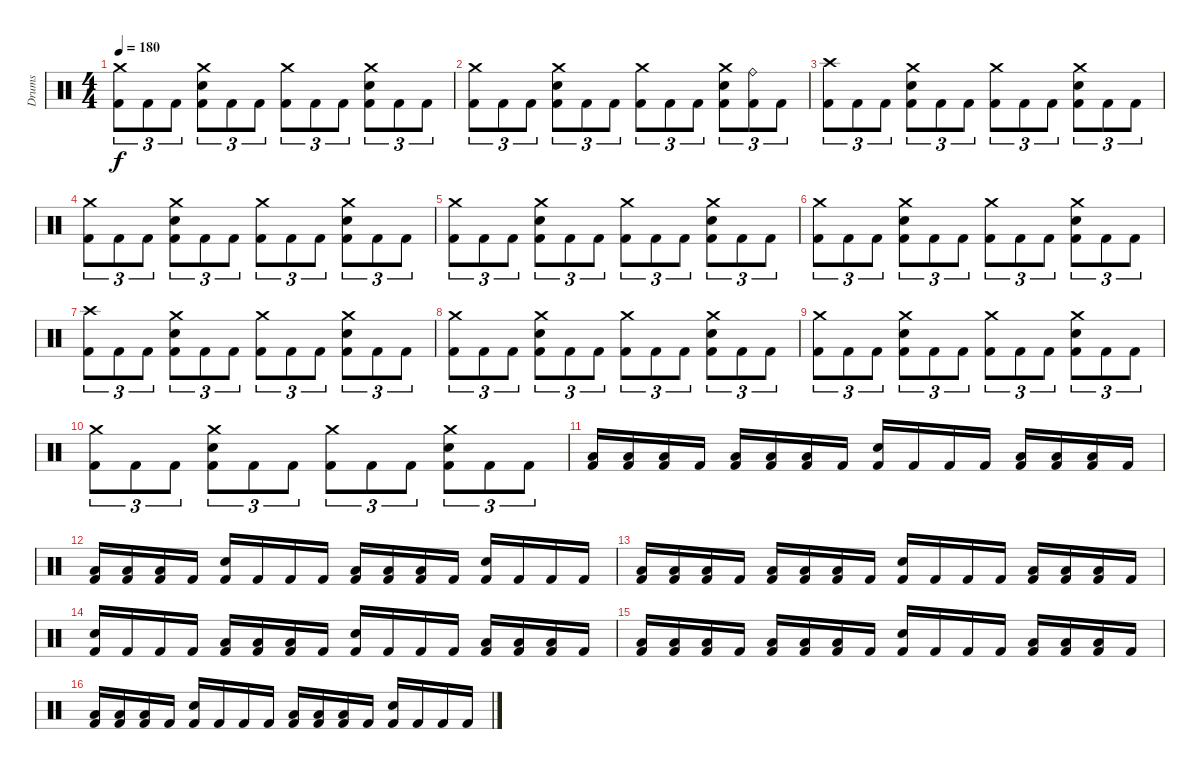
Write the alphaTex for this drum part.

\track ("Drums" "Drums") {instrument percussion}
\staff {score}
\articulation defaults
\ts (4 4)
\tempo 180
\clef neutral
\ks c
("Crash medium (hit)" "Kick (hit) 2").8{tu (3 2) dy f} "Kick (hit) 2".8{tu (3 2)} "Kick (hit) 2".8{tu (3 2)} ("Crash medium (hit)" "Electric Snare (hit)" "Kick (hit) 2").8{tu (3 2)} "Kick (hit) 2".8{tu (3 2)} "Kick (hit) 2".8{tu (3 2)} ("Crash medium (hit)" "Kick (hit) 2").8{tu (3 2)} "Kick (hit) 2".8{tu (3 2)} "Kick (hit) 2".8{tu (3 2)} ("Crash medium (hit)" "Electric Snare (hit)" "Kick (hit) 2").8{tu (3 2)} "Kick (hit) 2".8{tu (3 2)} "Kick (hit) 2".8{tu (3 2)} |
("Crash medium (hit)" "Kick (hit) 2").8{tu (3 2)} "Kick (hit) 2".8{tu (3 2)} "Kick (hit) 2".8{tu (3 2)} ("Crash medium (hit)" "Electric Snare (hit)" "Kick (hit) 2").8{tu (3 2)} "Kick (hit) 2".8{tu (3 2)} "Kick (hit) 2".8{tu (3 2)} ("Crash medium (hit)" "Kick (hit) 2").8{tu (3 2)} "Kick (hit) 2".8{tu (3 2)} "Kick (hit) 2".8{tu (3 2)} ("Crash medium (hit)" "Electric Snare (hit)" "Kick (hit) 2").8{tu (3 2)} ("Ride (bell)" "Kick (hit) 2").8{tu (3 2)} "Kick (hit) 2".8{tu (3 2)} |
("Crash high (hit)" "Kick (hit) 2").8{tu (3 2)} "Kick (hit) 2".8{tu (3 2)} "Kick (hit) 2".8{tu (3 2)} ("Crash medium (hit)" "Electric Snare (hit)" "Kick (hit) 2").8{tu (3 2)} "Kick (hit) 2".8{tu (3 2)} "Kick (hit) 2".8{tu (3 2)} ("Crash medium (hit)" "Kick (hit) 2").8{tu (3 2)} "Kick (hit) 2".8{tu (3 2)} "Kick (hit) 2".8{tu (3 2)} ("Crash medium (hit)" "Electric Snare (hit)" "Kick (hit) 2").8{tu (3 2)} "Kick (hit) 2".8{tu (3 2)} "Kick (hit) 2".8{tu (3 2)} |
("Crash medium (hit)" "Kick (hit) 2").8{tu (3 2)} "Kick (hit) 2".8{tu (3 2)} "Kick (hit) 2".8{tu (3 2)} ("Crash medium (hit)" "Electric Snare (hit)" "Kick (hit) 2").8{tu (3 2)} "Kick (hit) 2".8{tu (3 2)} "Kick (hit) 2".8{tu (3 2)} ("Crash medium (hit)" "Kick (hit) 2").8{tu (3 2)} "Kick (hit) 2".8{tu (3 2)} "Kick (hit) 2".8{tu (3 2)} ("Crash medium (hit)" "Electric Snare (hit)" "Kick (hit) 2").8{tu (3 2)} "Kick (hit) 2".8{tu (3 2)} "Kick (hit) 2".8{tu (3 2)} |
("Crash medium (hit)" "Kick (hit) 2").8{tu (3 2)} "Kick (hit) 2".8{tu (3 2)} "Kick (hit) 2".8{tu (3 2)} ("Crash medium (hit)" "Electric Snare (hit)" "Kick (hit) 2").8{tu (3 2)} "Kick (hit) 2".8{tu (3 2)} "Kick (hit) 2".8{tu (3 2)} ("Crash medium (hit)" "Kick (hit) 2").8{tu (3 2)} "Kick (hit) 2".8{tu (3 2)} "Kick (hit) 2".8{tu (3 2)} ("Crash medium (hit)" "Electric Snare (hit)" "Kick (hit) 2").8{tu (3 2)} "Kick (hit) 2".8{tu (3 2)} "Kick (hit) 2".8{tu (3 2)} |
("Crash medium (hit)" "Kick (hit) 2").8{tu (3 2)} "Kick (hit) 2".8{tu (3 2)} "Kick (hit) 2".8{tu (3 2)} ("Crash medium (hit)" "Electric Snare (hit)" "Kick (hit) 2").8{tu (3 2)} "Kick (hit) 2".8{tu (3 2)} "Kick (hit) 2".8{tu (3 2)} ("Crash medium (hit)" "Kick (hit) 2").8{tu (3 2)} "Kick (hit) 2".8{tu (3 2)} "Kick (hit) 2".8{tu (3 2)} ("Crash medium (hit)" "Electric Snare (hit)" "Kick (hit) 2").8{tu (3 2)} "Kick (hit) 2".8{tu (3 2)} "Kick (hit) 2".8{tu (3 2)} |
("Crash high (hit)" "Kick (hit) 2").8{tu (3 2)} "Kick (hit) 2".8{tu (3 2)} "Kick (hit) 2".8{tu (3 2)} ("Crash medium (hit)" "Electric Snare (hit)" "Kick (hit) 2").8{tu (3 2)} "Kick (hit) 2".8{tu (3 2)} "Kick (hit) 2".8{tu (3 2)} ("Crash medium (hit)" "Kick (hit) 2").8{tu (3 2)} "Kick (hit) 2".8{tu (3 2)} "Kick (hit) 2".8{tu (3 2)} ("Crash medium (hit)" "Electric Snare (hit)" "Kick (hit) 2").8{tu (3 2)} "Kick (hit) 2".8{tu (3 2)} "Kick (hit) 2".8{tu (3 2)} |
("Crash medium (hit)" "Kick (hit) 2").8{tu (3 2)} "Kick (hit) 2".8{tu (3 2)} "Kick (hit) 2".8{tu (3 2)} ("Crash medium (hit)" "Electric Snare (hit)" "Kick (hit) 2").8{tu (3 2)} "Kick (hit) 2".8{tu (3 2)} "Kick (hit) 2".8{tu (3 2)} ("Crash medium (hit)" "Kick (hit) 2").8{tu (3 2)} "Kick (hit) 2".8{tu (3 2)} "Kick (hit) 2".8{tu (3 2)} ("Crash medium (hit)" "Electric Snare (hit)" "Kick (hit) 2").8{tu (3 2)} "Kick (hit) 2".8{tu (3 2)} "Kick (hit) 2".8{tu (3 2)} |
("Crash medium (hit)" "Kick (hit) 2").8{tu (3 2)} "Kick (hit) 2".8{tu (3 2)} "Kick (hit) 2".8{tu (3 2)} ("Crash medium (hit)" "Electric Snare (hit)" "Kick (hit) 2").8{tu (3 2)} "Kick (hit) 2".8{tu (3 2)} "Kick (hit) 2".8{tu (3 2)} ("Crash medium (hit)" "Kick (hit) 2").8{tu (3 2)} "Kick (hit) 2".8{tu (3 2)} "Kick (hit) 2".8{tu (3 2)} ("Crash medium (hit)" "Electric Snare (hit)" "Kick (hit) 2").8{tu (3 2)} "Kick (hit) 2".8{tu (3 2)} "Kick (hit) 2".8{tu (3 2)} |
("Crash medium (hit)" "Kick (hit) 2").8{tu (3 2)} "Kick (hit) 2".8{tu (3 2)} "Kick (hit) 2".8{tu (3 2)} ("Crash medium (hit)" "Electric Snare (hit)" "Kick (hit) 2").8{tu (3 2)} "Kick (hit) 2".8{tu (3 2)} "Kick (hit) 2".8{tu (3 2)} ("Crash medium (hit)" "Kick (hit) 2").8{tu (3 2)} "Kick (hit) 2".8{tu (3 2)} "Kick (hit) 2".8{tu (3 2)} ("Crash medium (hit)" "Electric Snare (hit)" "Kick (hit) 2").8{tu (3 2)} "Kick (hit) 2".8{tu (3 2)} "Kick (hit) 2".8{tu (3 2)} |
("Low Tom (hit)" "Kick (hit) 2").16 ("Low Tom (hit)" "Kick (hit) 2").16 ("Low Tom (hit)" "Kick (hit) 2").16 "Kick (hit) 2".16 ("Low Tom (hit)" "Kick (hit) 2").16 ("Low Tom (hit)" "Kick (hit) 2").16 ("Low Tom (hit)" "Kick (hit) 2").16 "Kick (hit) 2".16 ("Electric Snare (hit)" "Kick (hit) 2").16 "Kick (hit) 2".16 "Kick (hit) 2".16 "Kick (hit) 2".16 ("Low Tom (hit)" "Kick (hit) 2").16 ("Low Tom (hit)" "Kick (hit) 2").16 ("Low Tom (hit)" "Kick (hit) 2").16 "Kick (hit) 2".16 |
("Low Tom (hit)" "Kick (hit) 2").16 ("Low Tom (hit)" "Kick (hit) 2").16 ("Low Tom (hit)" "Kick (hit) 2").16 "Kick (hit) 2".16 ("Electric Snare (hit)" "Kick (hit) 2").16 "Kick (hit) 2".16 "Kick (hit) 2".16 "Kick (hit) 2".16 ("Low Tom (hit)" "Kick (hit) 2").16 ("Low Tom (hit)" "Kick (hit) 2").16 ("Low Tom (hit)" "Kick (hit) 2").16 "Kick (hit) 2".16 ("Electric Snare (hit)" "Kick (hit) 2").16 "Kick (hit) 2".16 "Kick (hit) 2".16 "Kick (hit) 2".16 |
("Low Tom (hit)" "Kick (hit) 2").16 ("Low Tom (hit)" "Kick (hit) 2").16 ("Low Tom (hit)" "Kick (hit) 2").16 "Kick (hit) 2".16 ("Low Tom (hit)" "Kick (hit) 2").16 ("Low Tom (hit)" "Kick (hit) 2").16 ("Low Tom (hit)" "Kick (hit) 2").16 "Kick (hit) 2".16 ("Electric Snare (hit)" "Kick (hit) 2").16 "Kick (hit) 2".16 "Kick (hit) 2".16 "Kick (hit) 2".16 ("Low Tom (hit)" "Kick (hit) 2").16 ("Low Tom (hit)" "Kick (hit) 2").16 ("Low Tom (hit)" "Kick (hit) 2").16 "Kick (hit) 2".16 |
("Electric Snare (hit)" "Kick (hit) 2").16 "Kick (hit) 2".16 "Kick (hit) 2".16 "Kick (hit) 2".16 ("Low Tom (hit)" "Kick (hit) 2").16 ("Low Tom (hit)" "Kick (hit) 2").16 ("Low Tom (hit)" "Kick (hit) 2").16 "Kick (hit) 2".16 ("Electric Snare (hit)" "Kick (hit) 2").16 "Kick (hit) 2".16 "Kick (hit) 2".16 "Kick (hit) 2".16 ("Low Tom (hit)" "Kick (hit) 2").16 ("Low Tom (hit)" "Kick (hit) 2").16 ("Low Tom (hit)" "Kick (hit) 2").16 "Kick (hit) 2".16 |
("Low Tom (hit)" "Kick (hit) 2").16 ("Low Tom (hit)" "Kick (hit) 2").16 ("Low Tom (hit)" "Kick (hit) 2").16 "Kick (hit) 2".16 ("Low Tom (hit)" "Kick (hit) 2").16 ("Low Tom (hit)" "Kick (hit) 2").16 ("Low Tom (hit)" "Kick (hit) 2").16 "Kick (hit) 2".16 ("Electric Snare (hit)" "Kick (hit) 2").16 "Kick (hit) 2".16 "Kick (hit) 2".16 "Kick (hit) 2".16 ("Low Tom (hit)" "Kick (hit) 2").16 ("Low Tom (hit)" "Kick (hit) 2").16 ("Low Tom (hit)" "Kick (hit) 2").16 "Kick (hit) 2".16 |
("Low Tom (hit)" "Kick (hit) 2").16 ("Low Tom (hit)" "Kick (hit) 2").16 ("Low Tom (hit)" "Kick (hit) 2").16 "Kick (hit) 2".16 ("Electric Snare (hit)" "Kick (hit) 2").16 "Kick (hit) 2".16 "Kick (hit) 2".16 "Kick (hit) 2".16 ("Low Tom (hit)" "Kick (hit) 2").16 ("Low Tom (hit)" "Kick (hit) 2").16 ("Low Tom (hit)" "Kick (hit) 2").16 "Kick (hit) 2".16 ("Electric Snare (hit)" "Kick (hit) 2").16 "Kick (hit) 2".16 "Kick (hit) 2".16 "Kick (hit) 2".16
